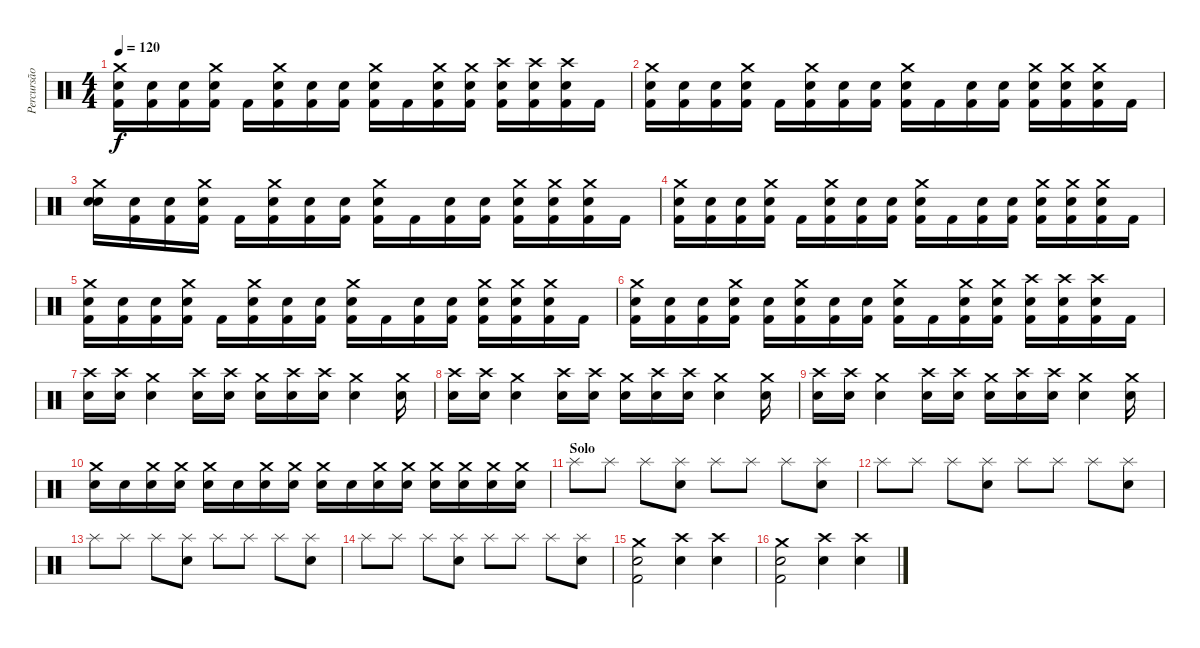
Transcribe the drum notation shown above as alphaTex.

\track ("Percursão" "Percursão") {instrument percussion}
\staff {score}
\articulation defaults
\ts (4 4)
\tempo 120
\clef neutral
\ks c
("Kick (hit) 2" "Snare (hit) 2" "Crash medium (hit)").16{dy f} ("Kick (hit) 2" "Snare (hit) 2").16 ("Kick (hit) 2" "Snare (hit) 2").16 ("Kick (hit) 2" "Snare (hit) 2" "Crash medium (hit)").16 "Kick (hit) 2".16 ("Kick (hit) 2" "Snare (hit) 2" "Crash medium (hit)").16 ("Kick (hit) 2" "Snare (hit) 2").16 ("Kick (hit) 2" "Snare (hit) 2").16 ("Kick (hit) 2" "Snare (hit) 2" "Crash medium (hit)").16 "Kick (hit) 2".16 ("Kick (hit) 2" "Snare (hit) 2" "Crash medium (hit)").16 ("Kick (hit) 2" "Snare (hit) 2" "Crash medium (hit)").16 ("Kick (hit) 2" "Snare (hit) 2" "Crash high (hit)").16 ("Kick (hit) 2" "Snare (hit) 2" "Crash high (hit)").16 ("Kick (hit) 2" "Snare (hit) 2" "Crash high (hit)").16 "Kick (hit) 2".16 |
("Kick (hit) 2" "Snare (hit) 2" "Crash medium (hit)").16 ("Kick (hit) 2" "Snare (hit) 2").16 ("Kick (hit) 2" "Snare (hit) 2").16 ("Kick (hit) 2" "Snare (hit) 2" "Crash medium (hit)").16 "Kick (hit) 2".16 ("Kick (hit) 2" "Snare (hit) 2" "Crash medium (hit)").16 ("Kick (hit) 2" "Snare (hit) 2").16 ("Kick (hit) 2" "Snare (hit) 2").16 ("Kick (hit) 2" "Snare (hit) 2" "Crash medium (hit)").16 "Kick (hit) 2".16 ("Kick (hit) 2" "Snare (hit) 2").16 ("Kick (hit) 2" "Snare (hit) 2").16 ("Kick (hit) 2" "Snare (hit) 2" "Crash medium (hit)").16 ("Kick (hit) 2" "Snare (hit) 2" "Crash medium (hit)").16 ("Kick (hit) 2" "Snare (hit) 2" "Crash medium (hit)").16 "Kick (hit) 2".16 |
("Hand Clap (hit)" "Snare (hit) 2" "Crash medium (hit)").16 ("Kick (hit) 2" "Snare (hit) 2").16 ("Kick (hit) 2" "Snare (hit) 2").16 ("Kick (hit) 2" "Snare (hit) 2" "Crash medium (hit)").16 "Kick (hit) 2".16 ("Kick (hit) 2" "Snare (hit) 2" "Crash medium (hit)").16 ("Kick (hit) 2" "Snare (hit) 2").16 ("Kick (hit) 2" "Snare (hit) 2").16 ("Kick (hit) 2" "Snare (hit) 2" "Crash medium (hit)").16 "Kick (hit) 2".16 ("Kick (hit) 2" "Snare (hit) 2").16 ("Kick (hit) 2" "Snare (hit) 2").16 ("Kick (hit) 2" "Snare (hit) 2" "Crash medium (hit)").16 ("Kick (hit) 2" "Snare (hit) 2" "Crash medium (hit)").16 ("Kick (hit) 2" "Snare (hit) 2" "Crash medium (hit)").16 "Kick (hit) 2".16 |
("Kick (hit) 2" "Snare (hit) 2" "Crash medium (hit)").16 ("Kick (hit) 2" "Snare (hit) 2").16 ("Kick (hit) 2" "Snare (hit) 2").16 ("Kick (hit) 2" "Snare (hit) 2" "Crash medium (hit)").16 "Kick (hit) 2".16 ("Kick (hit) 2" "Snare (hit) 2" "Crash medium (hit)").16 ("Kick (hit) 2" "Snare (hit) 2").16 ("Kick (hit) 2" "Snare (hit) 2").16 ("Kick (hit) 2" "Snare (hit) 2" "Crash medium (hit)").16 "Kick (hit) 2".16 ("Kick (hit) 2" "Snare (hit) 2").16 ("Kick (hit) 2" "Snare (hit) 2").16 ("Kick (hit) 2" "Snare (hit) 2" "Crash medium (hit)").16 ("Kick (hit) 2" "Snare (hit) 2" "Crash medium (hit)").16 ("Kick (hit) 2" "Snare (hit) 2" "Crash medium (hit)").16 "Kick (hit) 2".16 |
("Kick (hit) 2" "Snare (hit) 2" "Crash medium (hit)").16 ("Kick (hit) 2" "Snare (hit) 2").16 ("Kick (hit) 2" "Snare (hit) 2").16 ("Kick (hit) 2" "Snare (hit) 2" "Crash medium (hit)").16 "Kick (hit) 2".16 ("Kick (hit) 2" "Snare (hit) 2" "Crash medium (hit)").16 ("Kick (hit) 2" "Snare (hit) 2").16 ("Kick (hit) 2" "Snare (hit) 2").16 ("Kick (hit) 2" "Snare (hit) 2" "Crash medium (hit)").16 "Kick (hit) 2".16 ("Kick (hit) 2" "Snare (hit) 2").16 ("Kick (hit) 2" "Snare (hit) 2").16 ("Kick (hit) 2" "Snare (hit) 2" "Crash medium (hit)").16 ("Kick (hit) 2" "Snare (hit) 2" "Crash medium (hit)").16 ("Kick (hit) 2" "Snare (hit) 2" "Crash medium (hit)").16 "Kick (hit) 2".16 |
("Kick (hit) 2" "Snare (hit) 2" "Crash medium (hit)").16 ("Kick (hit) 2" "Snare (hit) 2").16 ("Kick (hit) 2" "Snare (hit) 2").16 ("Kick (hit) 2" "Snare (hit) 2" "Crash medium (hit)").16 ("Kick (hit) 2" "Snare (hit) 2").16 ("Kick (hit) 2" "Snare (hit) 2" "Crash medium (hit)").16 ("Kick (hit) 2" "Snare (hit) 2").16 ("Kick (hit) 2" "Snare (hit) 2").16 ("Kick (hit) 2" "Snare (hit) 2" "Crash medium (hit)").16 "Kick (hit) 2".16 ("Kick (hit) 2" "Snare (hit) 2" "Crash medium (hit)").16 ("Kick (hit) 2" "Snare (hit) 2" "Crash medium (hit)").16 ("Kick (hit) 2" "Snare (hit) 2" "Crash high (hit)").16 ("Kick (hit) 2" "Snare (hit) 2" "Crash high (hit)").16 ("Kick (hit) 2" "Snare (hit) 2" "Crash high (hit)").16 "Kick (hit) 2".16 |
("Snare (hit) 2" "Crash high (hit)").16 ("Snare (hit) 2" "Crash high (hit)").16 ("Electric Snare (hit)" "Crash medium (hit)").4 ("Snare (hit) 2" "Crash high (hit)").16 ("Snare (hit) 2" "Crash high (hit)").16 ("Snare (hit) 2" "Crash medium (hit)").16 ("Snare (hit) 2" "Crash high (hit)").16 ("Snare (hit) 2" "Crash high (hit)").16 ("Snare (hit) 2" "Crash medium (hit)").4 ("Snare (hit) 2" "Crash medium (hit)").16 |
("Snare (hit) 2" "Crash high (hit)").16 ("Snare (hit) 2" "Crash high (hit)").16 ("Electric Snare (hit)" "Crash medium (hit)").4 ("Snare (hit) 2" "Crash high (hit)").16 ("Snare (hit) 2" "Crash high (hit)").16 ("Snare (hit) 2" "Crash medium (hit)").16 ("Snare (hit) 2" "Crash high (hit)").16 ("Snare (hit) 2" "Crash high (hit)").16 ("Snare (hit) 2" "Crash medium (hit)").4 ("Snare (hit) 2" "Crash medium (hit)").16 |
("Snare (hit) 2" "Crash high (hit)").16 ("Snare (hit) 2" "Crash high (hit)").16 ("Electric Snare (hit)" "Crash medium (hit)").4 ("Snare (hit) 2" "Crash high (hit)").16 ("Snare (hit) 2" "Crash high (hit)").16 ("Snare (hit) 2" "Crash medium (hit)").16 ("Snare (hit) 2" "Crash high (hit)").16 ("Snare (hit) 2" "Crash high (hit)").16 ("Snare (hit) 2" "Crash medium (hit)").4 ("Snare (hit) 2" "Crash medium (hit)").16 |
("Snare (hit) 2" "Crash medium (hit)").16 "Snare (hit) 2".16 ("Snare (hit) 2" "Crash medium (hit)").16 ("Snare (hit) 2" "Crash medium (hit)").16 ("Snare (hit) 2" "Crash medium (hit)").16 "Snare (hit) 2".16 ("Snare (hit) 2" "Crash medium (hit)").16 ("Snare (hit) 2" "Crash medium (hit)").16 ("Snare (hit) 2" "Crash medium (hit)").16 "Snare (hit) 2".16 ("Snare (hit) 2" "Crash medium (hit)").16 ("Snare (hit) 2" "Crash medium (hit)").16 ("Snare (hit) 2" "Crash medium (hit)").16 ("Snare (hit) 2" "Crash medium (hit)").16 ("Snare (hit) 2" "Crash medium (hit)").16 ("Snare (hit) 2" "Crash medium (hit)").16 |
\section ("" "Solo")
"Splash (hit)".8 "Splash (hit)".8 "Splash (hit)".8 ("Snare (hit) 2" "Splash (hit)").8 "Splash (hit)".8 "Splash (hit)".8 "Splash (hit)".8 ("Snare (hit) 2" "Splash (hit)").8 |
"Splash (hit)".8 "Splash (hit)".8 "Splash (hit)".8 ("Snare (hit) 2" "Splash (hit)").8 "Splash (hit)".8 "Splash (hit)".8 "Splash (hit)".8 ("Snare (hit) 2" "Splash (hit)").8 |
"Splash (hit)".8 "Splash (hit)".8 "Splash (hit)".8 ("Snare (hit) 2" "Splash (hit)").8 "Splash (hit)".8 "Splash (hit)".8 "Splash (hit)".8 ("Snare (hit) 2" "Splash (hit)").8 |
"Splash (hit)".8 "Splash (hit)".8 "Splash (hit)".8 ("Snare (hit) 2" "Splash (hit)").8 "Splash (hit)".8 "Splash (hit)".8 "Splash (hit)".8 ("Snare (hit) 2" "Splash (hit)").8 |
("Kick (hit) 2" "Snare (hit) 2" "Crash medium (hit)").2 ("Snare (hit) 2" "Crash high (hit)").4 ("Snare (hit) 2" "Crash high (hit)").4 |
("Kick (hit) 2" "Snare (hit) 2" "Crash medium (hit)").2 ("Snare (hit) 2" "Crash high (hit)").4 ("Snare (hit) 2" "Crash high (hit)").4
